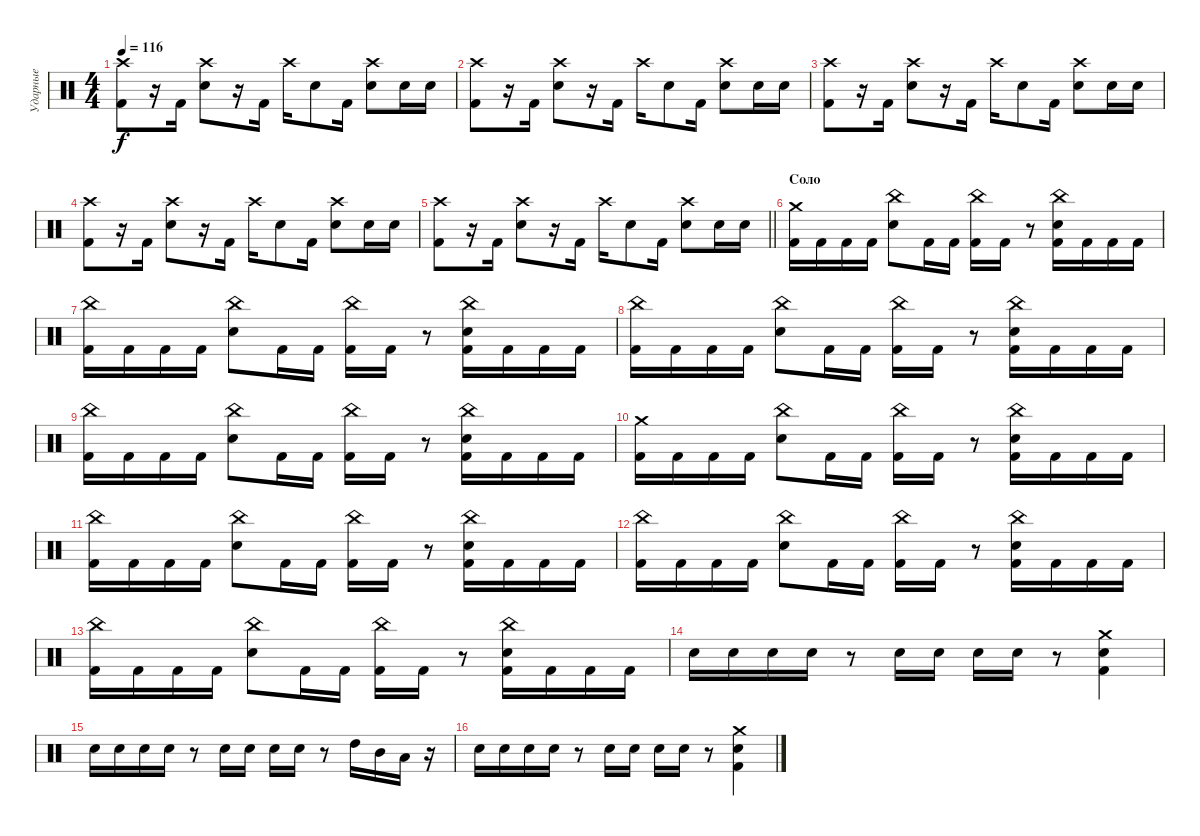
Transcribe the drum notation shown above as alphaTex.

\track ("Ударные" "Ударные") {instrument percussion}
\staff {score}
\articulation defaults
\ts (4 4)
\tempo 116
\clef neutral
\ks c
("Crash high (hit)" "Kick (hit) 2").8{dy f} r.16 "Kick (hit) 2".16 ("Crash high (hit)" "Snare (hit) 2").8 r.16 "Kick (hit) 2".16 "Crash high (hit)".16 "Snare (hit) 2".8 "Kick (hit) 2".16 ("Crash high (hit)" "Snare (hit) 2").8 "Snare (hit) 2".16 "Snare (hit) 2".16 |
("Crash high (hit)" "Kick (hit) 2").8 r.16 "Kick (hit) 2".16 ("Crash high (hit)" "Snare (hit) 2").8 r.16 "Kick (hit) 2".16 "Crash high (hit)".16 "Snare (hit) 2".8 "Kick (hit) 2".16 ("Crash high (hit)" "Snare (hit) 2").8 "Snare (hit) 2".16 "Snare (hit) 2".16 |
("Crash high (hit)" "Kick (hit) 2").8 r.16 "Kick (hit) 2".16 ("Crash high (hit)" "Snare (hit) 2").8 r.16 "Kick (hit) 2".16 "Crash high (hit)".16 "Snare (hit) 2".8 "Kick (hit) 2".16 ("Crash high (hit)" "Snare (hit) 2").8 "Snare (hit) 2".16 "Snare (hit) 2".16 |
("Crash high (hit)" "Kick (hit) 2").8 r.16 "Kick (hit) 2".16 ("Crash high (hit)" "Snare (hit) 2").8 r.16 "Kick (hit) 2".16 "Crash high (hit)".16 "Snare (hit) 2".8 "Kick (hit) 2".16 ("Crash high (hit)" "Snare (hit) 2").8 "Snare (hit) 2".16 "Snare (hit) 2".16 |
\barLineRight lightlight
("Crash high (hit)" "Kick (hit) 2").8 r.16 "Kick (hit) 2".16 ("Crash high (hit)" "Snare (hit) 2").8 r.16 "Kick (hit) 2".16 "Crash high (hit)".16 "Snare (hit) 2".8 "Kick (hit) 2".16 ("Crash high (hit)" "Snare (hit) 2").8 "Snare (hit) 2".16 "Snare (hit) 2".16 |
\section ("" "Соло")
("Crash medium (hit)" "Kick (hit) 2").16 "Kick (hit) 2".16 "Kick (hit) 2".16 "Kick (hit) 2".16 ("China (hit)" "Snare (hit) 2").8 "Kick (hit) 2".16 "Kick (hit) 2".16 ("China (hit)" "Kick (hit) 2").16 "Kick (hit) 2".16 r.8 ("China (hit)" "Snare (hit) 2" "Kick (hit) 2").16 "Kick (hit) 2".16 "Kick (hit) 2".16 "Kick (hit) 2".16 |
("China (hit)" "Kick (hit) 2").16 "Kick (hit) 2".16 "Kick (hit) 2".16 "Kick (hit) 2".16 ("China (hit)" "Snare (hit) 2").8 "Kick (hit) 2".16 "Kick (hit) 2".16 ("China (hit)" "Kick (hit) 2").16 "Kick (hit) 2".16 r.8 ("China (hit)" "Snare (hit) 2" "Kick (hit) 2").16 "Kick (hit) 2".16 "Kick (hit) 2".16 "Kick (hit) 2".16 |
("China (hit)" "Kick (hit) 2").16 "Kick (hit) 2".16 "Kick (hit) 2".16 "Kick (hit) 2".16 ("China (hit)" "Snare (hit) 2").8 "Kick (hit) 2".16 "Kick (hit) 2".16 ("China (hit)" "Kick (hit) 2").16 "Kick (hit) 2".16 r.8 ("China (hit)" "Snare (hit) 2" "Kick (hit) 2").16 "Kick (hit) 2".16 "Kick (hit) 2".16 "Kick (hit) 2".16 |
("China (hit)" "Kick (hit) 2").16 "Kick (hit) 2".16 "Kick (hit) 2".16 "Kick (hit) 2".16 ("China (hit)" "Snare (hit) 2").8 "Kick (hit) 2".16 "Kick (hit) 2".16 ("China (hit)" "Kick (hit) 2").16 "Kick (hit) 2".16 r.8 ("China (hit)" "Snare (hit) 2" "Kick (hit) 2").16 "Kick (hit) 2".16 "Kick (hit) 2".16 "Kick (hit) 2".16 |
("Crash medium (hit)" "Kick (hit) 2").16 "Kick (hit) 2".16 "Kick (hit) 2".16 "Kick (hit) 2".16 ("China (hit)" "Snare (hit) 2").8 "Kick (hit) 2".16 "Kick (hit) 2".16 ("China (hit)" "Kick (hit) 2").16 "Kick (hit) 2".16 r.8 ("China (hit)" "Snare (hit) 2" "Kick (hit) 2").16 "Kick (hit) 2".16 "Kick (hit) 2".16 "Kick (hit) 2".16 |
("China (hit)" "Kick (hit) 2").16 "Kick (hit) 2".16 "Kick (hit) 2".16 "Kick (hit) 2".16 ("China (hit)" "Snare (hit) 2").8 "Kick (hit) 2".16 "Kick (hit) 2".16 ("China (hit)" "Kick (hit) 2").16 "Kick (hit) 2".16 r.8 ("China (hit)" "Snare (hit) 2" "Kick (hit) 2").16 "Kick (hit) 2".16 "Kick (hit) 2".16 "Kick (hit) 2".16 |
("China (hit)" "Kick (hit) 2").16 "Kick (hit) 2".16 "Kick (hit) 2".16 "Kick (hit) 2".16 ("China (hit)" "Snare (hit) 2").8 "Kick (hit) 2".16 "Kick (hit) 2".16 ("China (hit)" "Kick (hit) 2").16 "Kick (hit) 2".16 r.8 ("China (hit)" "Snare (hit) 2" "Kick (hit) 2").16 "Kick (hit) 2".16 "Kick (hit) 2".16 "Kick (hit) 2".16 |
("China (hit)" "Kick (hit) 2").16 "Kick (hit) 2".16 "Kick (hit) 2".16 "Kick (hit) 2".16 ("China (hit)" "Snare (hit) 2").8 "Kick (hit) 2".16 "Kick (hit) 2".16 ("China (hit)" "Kick (hit) 2").16 "Kick (hit) 2".16 r.8 ("China (hit)" "Snare (hit) 2" "Kick (hit) 2").16 "Kick (hit) 2".16 "Kick (hit) 2".16 "Kick (hit) 2".16 |
"Snare (hit) 2".16 "Snare (hit) 2".16 "Snare (hit) 2".16 "Snare (hit) 2".16 r.8 "Snare (hit) 2".16 "Snare (hit) 2".16 "Snare (hit) 2".16 "Snare (hit) 2".16 r.8 ("Crash medium (hit)" "Snare (hit) 2" "Kick (hit) 2").4 |
"Snare (hit) 2".16 "Snare (hit) 2".16 "Snare (hit) 2".16 "Snare (hit) 2".16 r.8 "Snare (hit) 2".16 "Snare (hit) 2".16 "Snare (hit) 2".16 "Snare (hit) 2".16 r.8 "High Tom (hit)".16 "Mid Tom (hit)".16 "Low Tom (hit)".16 r.16 |
"Snare (hit) 2".16 "Snare (hit) 2".16 "Snare (hit) 2".16 "Snare (hit) 2".16 r.8 "Snare (hit) 2".16 "Snare (hit) 2".16 "Snare (hit) 2".16 "Snare (hit) 2".16 r.8 ("Crash medium (hit)" "Snare (hit) 2" "Kick (hit) 2").4
